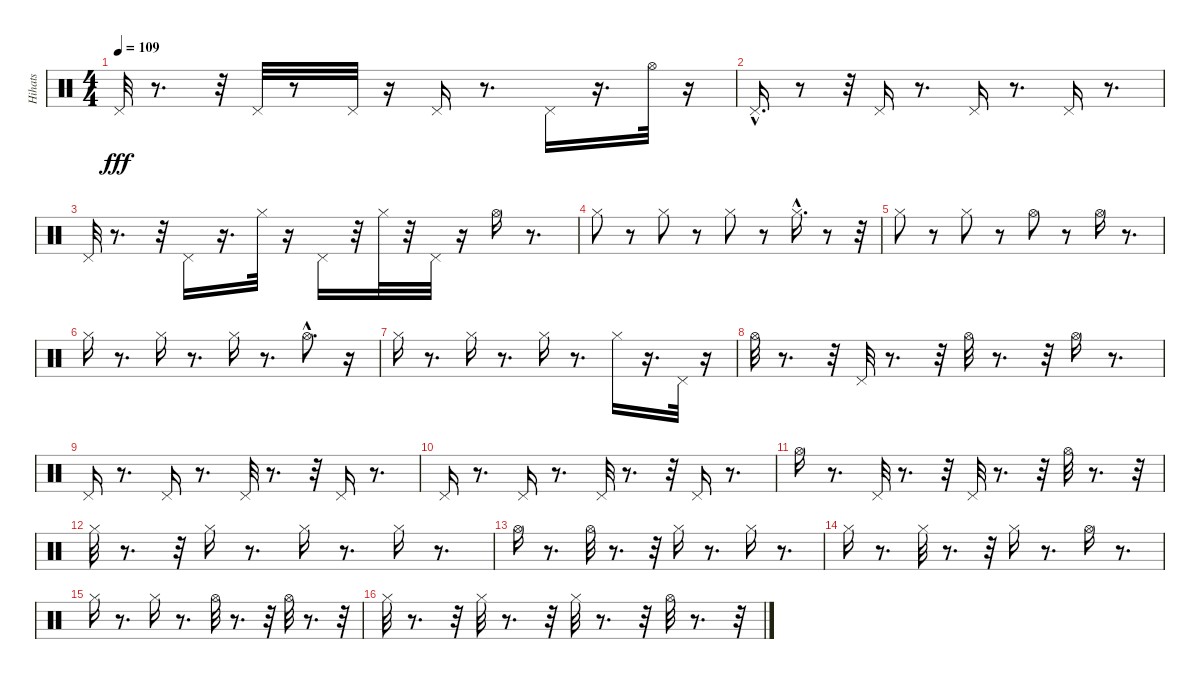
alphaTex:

\track ("Hihats          " "Hihats    ") {instrument percussion}
\staff {score}
\articulation defaults
\ts (4 4)
\tempo 109
\clef neutral
\ks c "Pedal Hi-Hat (hit)".32{dy fff}
r.8{d} r.32 "Pedal Hi-Hat (hit)".32 r.8 "Pedal Hi-Hat (hit)".32 r.16 "Pedal Hi-Hat (hit)".16 r.8{d} "Pedal Hi-Hat (hit)".16 r.16{d} "Hi-Hat (open)".32 r.16 |
"Pedal Hi-Hat (hit)"{hac}.16{d} r.8 r.32 "Pedal Hi-Hat (hit)".16 r.8{d} "Pedal Hi-Hat (hit)".16 r.8{d} "Pedal Hi-Hat (hit)".16 r.8{d} |
"Pedal Hi-Hat (hit)".32 r.8{d} r.32 "Pedal Hi-Hat (hit)".16 r.16{d} "Hi-Hat (closed)".32 r.16 "Pedal Hi-Hat (hit)".16 r.32 "Hi-Hat (closed)".32 r.32 "Pedal Hi-Hat (hit)".32 r.16 "Hi-Hat (open)".16 r.8{d} |
"Hi-Hat (closed)".8 r.8 "Hi-Hat (closed)".8 r.8 "Hi-Hat (closed)".8 r.8 "Hi-Hat (closed)"{hac}.16{d} r.8 r.32 |
"Hi-Hat (closed)".8 r.8 "Hi-Hat (closed)".8 r.8 "Hi-Hat (open)".8 r.8 "Hi-Hat (open)".16 r.8{d} |
"Hi-Hat (closed)".16 r.8{d} "Hi-Hat (closed)".16 r.8{d} "Hi-Hat (closed)".16 r.8{d} "Hi-Hat (open)"{hac}.8{d} r.16 |
"Hi-Hat (closed)".16 r.8{d} "Hi-Hat (closed)".16 r.8{d} "Hi-Hat (closed)".16 r.8{d} "Hi-Hat (closed)".16 r.16{d} "Pedal Hi-Hat (hit)".32 r.16 |
"Hi-Hat (open)".32 r.8{d} r.32 "Pedal Hi-Hat (hit)".32 r.8{d} r.32 "Hi-Hat (open)".32 r.8{d} r.32 "Hi-Hat (open)".16 r.8{d} |
"Pedal Hi-Hat (hit)".16 r.8{d} "Pedal Hi-Hat (hit)".16 r.8{d} "Pedal Hi-Hat (hit)".32 r.8{d} r.32 "Pedal Hi-Hat (hit)".16 r.8{d} |
"Pedal Hi-Hat (hit)".16 r.8{d} "Pedal Hi-Hat (hit)".16 r.8{d} "Pedal Hi-Hat (hit)".32 r.8{d} r.32 "Pedal Hi-Hat (hit)".16 r.8{d} |
"Hi-Hat (open)".16 r.8{d} "Pedal Hi-Hat (hit)".32 r.8{d} r.32 "Pedal Hi-Hat (hit)".32 r.8{d} r.32 "Hi-Hat (open)".32 r.8{d} r.32 |
"Hi-Hat (closed)".32 r.8{d} r.32 "Hi-Hat (closed)".16 r.8{d} "Hi-Hat (closed)".16 r.8{d} "Hi-Hat (closed)".16 r.8{d} |
"Hi-Hat (open)".16 r.8{d} "Hi-Hat (open)".32 r.8{d} r.32 "Hi-Hat (closed)".16 r.8{d} "Hi-Hat (closed)".16 r.8{d} |
"Hi-Hat (closed)".16 r.8{d} "Hi-Hat (closed)".32 r.8{d} r.32 "Hi-Hat (closed)".16 r.8{d} "Hi-Hat (open)".16 r.8{d} |
"Hi-Hat (closed)".16 r.8{d} "Hi-Hat (closed)".16 r.8{d} "Hi-Hat (open)".32 r.8{d} r.32 "Hi-Hat (open)".32 r.8{d} r.32 |
"Hi-Hat (closed)".32 r.8{d} r.32 "Hi-Hat (closed)".32 r.8{d} r.32 "Hi-Hat (closed)".32 r.8{d} r.32 "Hi-Hat (open)".32 r.8{d} r.32
